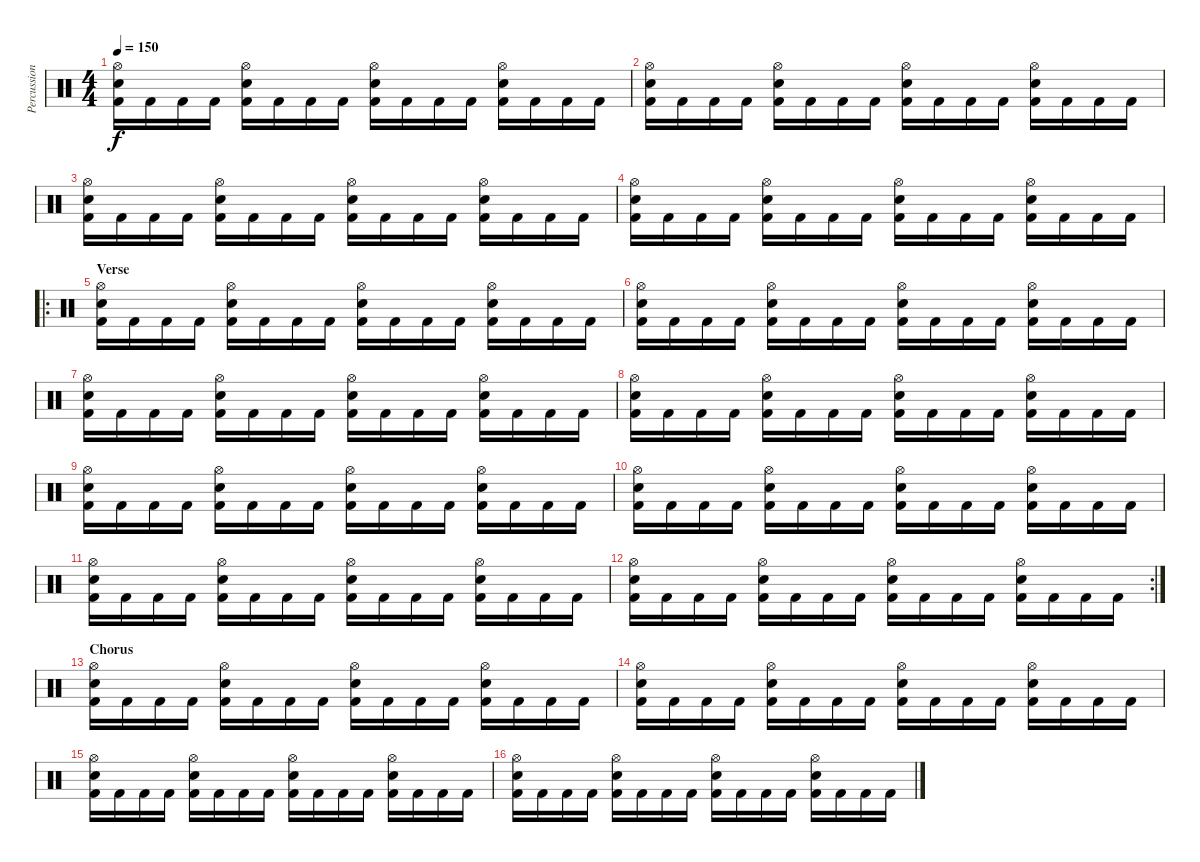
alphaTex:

\track ("Percussion" "Percussion") {instrument percussion}
\staff {score}
\articulation defaults
\ts (4 4)
\tempo 150
\clef neutral
\ks c
("Hi-Hat (open)" "Snare (hit) 2" "Kick (hit) 2").16{dy f} "Kick (hit) 2".16 "Kick (hit) 2".16 "Kick (hit) 2".16 ("Hi-Hat (open)" "Snare (hit) 2" "Kick (hit) 2").16 "Kick (hit) 2".16 "Kick (hit) 2".16 "Kick (hit) 2".16 ("Hi-Hat (open)" "Snare (hit) 2" "Kick (hit) 2").16 "Kick (hit) 2".16 "Kick (hit) 2".16 "Kick (hit) 2".16 ("Hi-Hat (open)" "Snare (hit) 2" "Kick (hit) 2").16 "Kick (hit) 2".16 "Kick (hit) 2".16 "Kick (hit) 2".16 |
("Hi-Hat (open)" "Snare (hit) 2" "Kick (hit) 2").16 "Kick (hit) 2".16 "Kick (hit) 2".16 "Kick (hit) 2".16 ("Hi-Hat (open)" "Snare (hit) 2" "Kick (hit) 2").16 "Kick (hit) 2".16 "Kick (hit) 2".16 "Kick (hit) 2".16 ("Hi-Hat (open)" "Snare (hit) 2" "Kick (hit) 2").16 "Kick (hit) 2".16 "Kick (hit) 2".16 "Kick (hit) 2".16 ("Hi-Hat (open)" "Snare (hit) 2" "Kick (hit) 2").16 "Kick (hit) 2".16 "Kick (hit) 2".16 "Kick (hit) 2".16 |
("Hi-Hat (open)" "Snare (hit) 2" "Kick (hit) 2").16 "Kick (hit) 2".16 "Kick (hit) 2".16 "Kick (hit) 2".16 ("Hi-Hat (open)" "Snare (hit) 2" "Kick (hit) 2").16 "Kick (hit) 2".16 "Kick (hit) 2".16 "Kick (hit) 2".16 ("Hi-Hat (open)" "Snare (hit) 2" "Kick (hit) 2").16 "Kick (hit) 2".16 "Kick (hit) 2".16 "Kick (hit) 2".16 ("Hi-Hat (open)" "Snare (hit) 2" "Kick (hit) 2").16 "Kick (hit) 2".16 "Kick (hit) 2".16 "Kick (hit) 2".16 |
("Hi-Hat (open)" "Snare (hit) 2" "Kick (hit) 2").16 "Kick (hit) 2".16 "Kick (hit) 2".16 "Kick (hit) 2".16 ("Hi-Hat (open)" "Snare (hit) 2" "Kick (hit) 2").16 "Kick (hit) 2".16 "Kick (hit) 2".16 "Kick (hit) 2".16 ("Hi-Hat (open)" "Snare (hit) 2" "Kick (hit) 2").16 "Kick (hit) 2".16 "Kick (hit) 2".16 "Kick (hit) 2".16 ("Hi-Hat (open)" "Snare (hit) 2" "Kick (hit) 2").16 "Kick (hit) 2".16 "Kick (hit) 2".16 "Kick (hit) 2".16 |
\ro
\section ("" "Verse")
("Hi-Hat (open)" "Snare (hit) 2" "Kick (hit) 2").16 "Kick (hit) 2".16 "Kick (hit) 2".16 "Kick (hit) 2".16 ("Hi-Hat (open)" "Snare (hit) 2" "Kick (hit) 2").16 "Kick (hit) 2".16 "Kick (hit) 2".16 "Kick (hit) 2".16 ("Hi-Hat (open)" "Snare (hit) 2" "Kick (hit) 2").16 "Kick (hit) 2".16 "Kick (hit) 2".16 "Kick (hit) 2".16 ("Hi-Hat (open)" "Snare (hit) 2" "Kick (hit) 2").16 "Kick (hit) 2".16 "Kick (hit) 2".16 "Kick (hit) 2".16 |
("Hi-Hat (open)" "Snare (hit) 2" "Kick (hit) 2").16 "Kick (hit) 2".16 "Kick (hit) 2".16 "Kick (hit) 2".16 ("Hi-Hat (open)" "Snare (hit) 2" "Kick (hit) 2").16 "Kick (hit) 2".16 "Kick (hit) 2".16 "Kick (hit) 2".16 ("Hi-Hat (open)" "Snare (hit) 2" "Kick (hit) 2").16 "Kick (hit) 2".16 "Kick (hit) 2".16 "Kick (hit) 2".16 ("Hi-Hat (open)" "Snare (hit) 2" "Kick (hit) 2").16 "Kick (hit) 2".16 "Kick (hit) 2".16 "Kick (hit) 2".16 |
("Hi-Hat (open)" "Snare (hit) 2" "Kick (hit) 2").16 "Kick (hit) 2".16 "Kick (hit) 2".16 "Kick (hit) 2".16 ("Hi-Hat (open)" "Snare (hit) 2" "Kick (hit) 2").16 "Kick (hit) 2".16 "Kick (hit) 2".16 "Kick (hit) 2".16 ("Hi-Hat (open)" "Snare (hit) 2" "Kick (hit) 2").16 "Kick (hit) 2".16 "Kick (hit) 2".16 "Kick (hit) 2".16 ("Hi-Hat (open)" "Snare (hit) 2" "Kick (hit) 2").16 "Kick (hit) 2".16 "Kick (hit) 2".16 "Kick (hit) 2".16 |
("Hi-Hat (open)" "Snare (hit) 2" "Kick (hit) 2").16 "Kick (hit) 2".16 "Kick (hit) 2".16 "Kick (hit) 2".16 ("Hi-Hat (open)" "Snare (hit) 2" "Kick (hit) 2").16 "Kick (hit) 2".16 "Kick (hit) 2".16 "Kick (hit) 2".16 ("Hi-Hat (open)" "Snare (hit) 2" "Kick (hit) 2").16 "Kick (hit) 2".16 "Kick (hit) 2".16 "Kick (hit) 2".16 ("Hi-Hat (open)" "Snare (hit) 2" "Kick (hit) 2").16 "Kick (hit) 2".16 "Kick (hit) 2".16 "Kick (hit) 2".16 |
("Hi-Hat (open)" "Snare (hit) 2" "Kick (hit) 2").16 "Kick (hit) 2".16 "Kick (hit) 2".16 "Kick (hit) 2".16 ("Hi-Hat (open)" "Snare (hit) 2" "Kick (hit) 2").16 "Kick (hit) 2".16 "Kick (hit) 2".16 "Kick (hit) 2".16 ("Hi-Hat (open)" "Snare (hit) 2" "Kick (hit) 2").16 "Kick (hit) 2".16 "Kick (hit) 2".16 "Kick (hit) 2".16 ("Hi-Hat (open)" "Snare (hit) 2" "Kick (hit) 2").16 "Kick (hit) 2".16 "Kick (hit) 2".16 "Kick (hit) 2".16 |
("Hi-Hat (open)" "Snare (hit) 2" "Kick (hit) 2").16 "Kick (hit) 2".16 "Kick (hit) 2".16 "Kick (hit) 2".16 ("Hi-Hat (open)" "Snare (hit) 2" "Kick (hit) 2").16 "Kick (hit) 2".16 "Kick (hit) 2".16 "Kick (hit) 2".16 ("Hi-Hat (open)" "Snare (hit) 2" "Kick (hit) 2").16 "Kick (hit) 2".16 "Kick (hit) 2".16 "Kick (hit) 2".16 ("Hi-Hat (open)" "Snare (hit) 2" "Kick (hit) 2").16 "Kick (hit) 2".16 "Kick (hit) 2".16 "Kick (hit) 2".16 |
("Hi-Hat (open)" "Snare (hit) 2" "Kick (hit) 2").16 "Kick (hit) 2".16 "Kick (hit) 2".16 "Kick (hit) 2".16 ("Hi-Hat (open)" "Snare (hit) 2" "Kick (hit) 2").16 "Kick (hit) 2".16 "Kick (hit) 2".16 "Kick (hit) 2".16 ("Hi-Hat (open)" "Snare (hit) 2" "Kick (hit) 2").16 "Kick (hit) 2".16 "Kick (hit) 2".16 "Kick (hit) 2".16 ("Hi-Hat (open)" "Snare (hit) 2" "Kick (hit) 2").16 "Kick (hit) 2".16 "Kick (hit) 2".16 "Kick (hit) 2".16 |
\rc 2
("Hi-Hat (open)" "Snare (hit) 2" "Kick (hit) 2").16 "Kick (hit) 2".16 "Kick (hit) 2".16 "Kick (hit) 2".16 ("Hi-Hat (open)" "Snare (hit) 2" "Kick (hit) 2").16 "Kick (hit) 2".16 "Kick (hit) 2".16 "Kick (hit) 2".16 ("Hi-Hat (open)" "Snare (hit) 2" "Kick (hit) 2").16 "Kick (hit) 2".16 "Kick (hit) 2".16 "Kick (hit) 2".16 ("Hi-Hat (open)" "Snare (hit) 2" "Kick (hit) 2").16 "Kick (hit) 2".16 "Kick (hit) 2".16 "Kick (hit) 2".16 |
\section ("" "Chorus")
("Hi-Hat (open)" "Snare (hit) 2" "Kick (hit) 2").16 "Kick (hit) 2".16 "Kick (hit) 2".16 "Kick (hit) 2".16 ("Hi-Hat (open)" "Snare (hit) 2" "Kick (hit) 2").16 "Kick (hit) 2".16 "Kick (hit) 2".16 "Kick (hit) 2".16 ("Hi-Hat (open)" "Snare (hit) 2" "Kick (hit) 2").16 "Kick (hit) 2".16 "Kick (hit) 2".16 "Kick (hit) 2".16 ("Hi-Hat (open)" "Snare (hit) 2" "Kick (hit) 2").16 "Kick (hit) 2".16 "Kick (hit) 2".16 "Kick (hit) 2".16 |
("Hi-Hat (open)" "Snare (hit) 2" "Kick (hit) 2").16 "Kick (hit) 2".16 "Kick (hit) 2".16 "Kick (hit) 2".16 ("Hi-Hat (open)" "Snare (hit) 2" "Kick (hit) 2").16 "Kick (hit) 2".16 "Kick (hit) 2".16 "Kick (hit) 2".16 ("Hi-Hat (open)" "Snare (hit) 2" "Kick (hit) 2").16 "Kick (hit) 2".16 "Kick (hit) 2".16 "Kick (hit) 2".16 ("Hi-Hat (open)" "Snare (hit) 2" "Kick (hit) 2").16 "Kick (hit) 2".16 "Kick (hit) 2".16 "Kick (hit) 2".16 |
("Hi-Hat (open)" "Snare (hit) 2" "Kick (hit) 2").16 "Kick (hit) 2".16 "Kick (hit) 2".16 "Kick (hit) 2".16 ("Hi-Hat (open)" "Snare (hit) 2" "Kick (hit) 2").16 "Kick (hit) 2".16 "Kick (hit) 2".16 "Kick (hit) 2".16 ("Hi-Hat (open)" "Snare (hit) 2" "Kick (hit) 2").16 "Kick (hit) 2".16 "Kick (hit) 2".16 "Kick (hit) 2".16 ("Hi-Hat (open)" "Snare (hit) 2" "Kick (hit) 2").16 "Kick (hit) 2".16 "Kick (hit) 2".16 "Kick (hit) 2".16 |
("Hi-Hat (open)" "Snare (hit) 2" "Kick (hit) 2").16 "Kick (hit) 2".16 "Kick (hit) 2".16 "Kick (hit) 2".16 ("Hi-Hat (open)" "Snare (hit) 2" "Kick (hit) 2").16 "Kick (hit) 2".16 "Kick (hit) 2".16 "Kick (hit) 2".16 ("Hi-Hat (open)" "Snare (hit) 2" "Kick (hit) 2").16 "Kick (hit) 2".16 "Kick (hit) 2".16 "Kick (hit) 2".16 ("Hi-Hat (open)" "Snare (hit) 2" "Kick (hit) 2").16 "Kick (hit) 2".16 "Kick (hit) 2".16 "Kick (hit) 2".16
